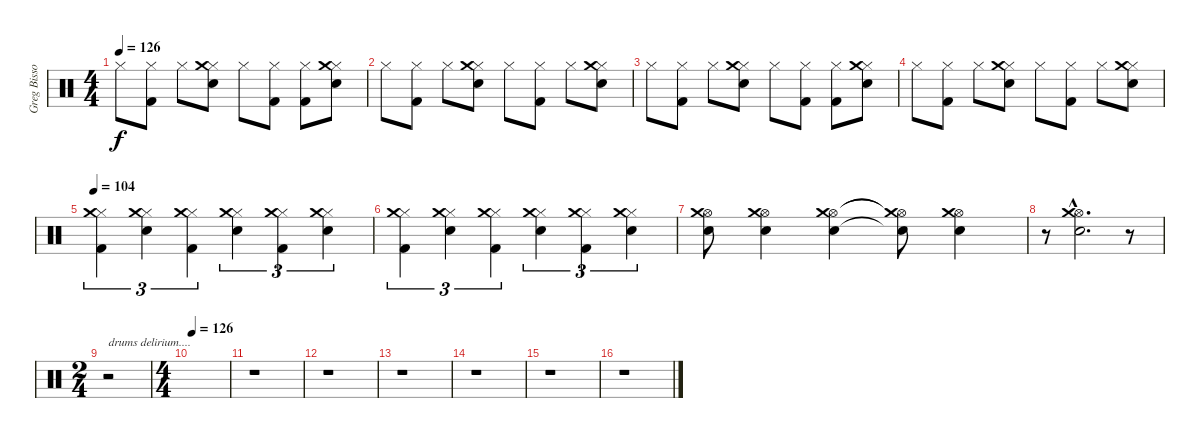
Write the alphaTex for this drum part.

\track ("Greg Bissonette - drums" "Greg Bisso") {instrument percussion}
\staff {score}
\articulation defaults
\ts (4 4)
\tempo 126
\clef neutral
\ks c "Hi-Hat (closed)".8{dy f}
("Hi-Hat (closed)" "Kick (hit) 2").8 "Hi-Hat (closed)".8 ("Hi-Hat (closed)" "Snare (hit) 2" "Crash medium (hit)").8 "Hi-Hat (closed)".8 ("Hi-Hat (closed)" "Kick (hit) 2").8 ("Hi-Hat (closed)" "Kick (hit) 2").8 ("Hi-Hat (closed)" "Snare (hit) 2" "Crash medium (hit)").8 |
"Hi-Hat (closed)".8 ("Hi-Hat (closed)" "Kick (hit) 2").8 "Hi-Hat (closed)".8 ("Hi-Hat (closed)" "Snare (hit) 2" "Crash medium (hit)").8 "Hi-Hat (closed)".8 ("Hi-Hat (closed)" "Kick (hit) 2").8 "Hi-Hat (closed)".8 ("Hi-Hat (closed)" "Snare (hit) 2" "Crash medium (hit)").8 |
"Hi-Hat (closed)".8 ("Hi-Hat (closed)" "Kick (hit) 2").8 "Hi-Hat (closed)".8 ("Hi-Hat (closed)" "Snare (hit) 2" "Crash medium (hit)").8 "Hi-Hat (closed)".8 ("Hi-Hat (closed)" "Kick (hit) 2").8 ("Hi-Hat (closed)" "Kick (hit) 2").8 ("Hi-Hat (closed)" "Snare (hit) 2" "Crash medium (hit)").8 |
"Hi-Hat (closed)".8 ("Hi-Hat (closed)" "Kick (hit) 2").8 "Hi-Hat (closed)".8 ("Hi-Hat (closed)" "Snare (hit) 2" "Crash medium (hit)").8 "Hi-Hat (closed)".8 ("Hi-Hat (closed)" "Kick (hit) 2").8 "Hi-Hat (closed)".8 ("Hi-Hat (closed)" "Snare (hit) 2" "Crash medium (hit)").8 |
\tempo 104
("Hi-Hat (closed)" "Crash medium (hit)" "Kick (hit) 2").4{tu (3 2)} ("Hi-Hat (closed)" "Snare (hit) 2" "Crash medium (hit)").4{tu (3 2)} ("Hi-Hat (closed)" "Crash medium (hit)" "Kick (hit) 2").4{tu (3 2)} ("Hi-Hat (closed)" "Snare (hit) 2" "Crash medium (hit)").4{tu (3 2)} ("Hi-Hat (closed)" "Crash medium (hit)" "Kick (hit) 2").4{tu (3 2)} ("Hi-Hat (closed)" "Snare (hit) 2" "Crash medium (hit)").4{tu (3 2)} |
("Hi-Hat (closed)" "Crash medium (hit)" "Kick (hit) 2").4{tu (3 2)} ("Hi-Hat (closed)" "Snare (hit) 2" "Crash medium (hit)").4{tu (3 2)} ("Hi-Hat (closed)" "Crash medium (hit)" "Kick (hit) 2").4{tu (3 2)} ("Hi-Hat (closed)" "Snare (hit) 2" "Crash medium (hit)").4{tu (3 2)} ("Hi-Hat (closed)" "Crash medium (hit)" "Kick (hit) 2").4{tu (3 2)} ("Hi-Hat (closed)" "Snare (hit) 2" "Crash medium (hit)").4{tu (3 2)} |
("Hi-Hat (open)" "Snare (hit) 2" "Crash medium (hit)").8 ("Hi-Hat (open)" "Snare (hit) 2" "Crash medium (hit)").4 ("Hi-Hat (open)" "Snare (hit) 2" "Crash medium (hit)").4 ("Hi-Hat (open)"{t} "Snare (hit) 2"{t} "Crash medium (hit)"{t}).8 ("Hi-Hat (open)" "Snare (hit) 2" "Crash medium (hit)").4 |
r.8 ("Hi-Hat (open)"{hac} "Snare (hit) 2"{hac} "Crash medium (hit)"{hac}).2{d} r.8 |
\ts (2 4)
r.2{txt "drums delirium...."} |
\ts (4 4)
\tempo 126
|
r.1 |
r.1 |
r.1 |
r.1 |
r.1 |
r.1
